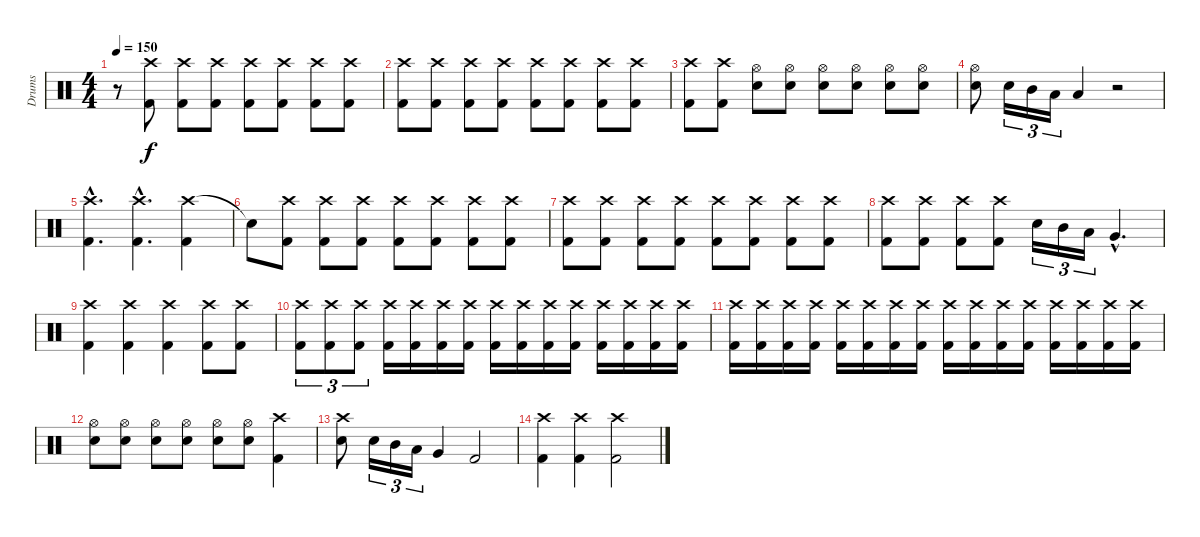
\track ("Drums" "Drums") {instrument percussion}
\staff {score}
\articulation defaults
\ts (4 4)
\tempo 150
\clef neutral
\ks c
r.8{dy f} ("Crash high (hit)" "Kick (hit) 2").8 ("Crash high (hit)" "Kick (hit) 2").8 ("Crash high (hit)" "Kick (hit) 2").8 ("Crash high (hit)" "Kick (hit) 2").8 ("Crash high (hit)" "Kick (hit) 2").8 ("Crash high (hit)" "Kick (hit) 2").8 ("Crash high (hit)" "Kick (hit) 2").8 |
("Crash high (hit)" "Kick (hit) 2").8 ("Crash high (hit)" "Kick (hit) 2").8 ("Crash high (hit)" "Kick (hit) 2").8 ("Crash high (hit)" "Kick (hit) 2").8 ("Crash high (hit)" "Kick (hit) 2").8 ("Crash high (hit)" "Kick (hit) 2").8 ("Crash high (hit)" "Kick (hit) 2").8 ("Crash high (hit)" "Kick (hit) 2").8 |
("Crash high (hit)" "Kick (hit) 2").8 ("Crash high (hit)" "Kick (hit) 2").8 ("Hi-Hat (open)" "Electric Snare (hit)").8 ("Hi-Hat (open)" "Electric Snare (hit)").8 ("Hi-Hat (open)" "Electric Snare (hit)").8 ("Hi-Hat (open)" "Electric Snare (hit)").8 ("Hi-Hat (open)" "Electric Snare (hit)").8 ("Hi-Hat (open)" "Electric Snare (hit)").8 |
("Hi-Hat (open)" "Electric Snare (hit)").8 "Electric Snare (hit)".16{tu (3 2)} "Mid Tom (hit)".16{tu (3 2)} "Low Tom (hit)".16{tu (3 2)} "Low Tom (hit)".4 r.2 |
("Crash high (hit)"{hac} "Kick (hit) 2"{hac}).4{d} ("Crash high (hit)"{hac} "Kick (hit) 2"{hac}).4{d} ("Crash high (hit)" "Kick (hit) 2").4 |
"Snare (hit)"{t}.8 ("Crash high (hit)" "Kick (hit) 2").8 ("Crash high (hit)" "Kick (hit) 2").8 ("Crash high (hit)" "Kick (hit) 2").8 ("Crash high (hit)" "Kick (hit) 2").8 ("Crash high (hit)" "Kick (hit) 2").8 ("Crash high (hit)" "Kick (hit) 2").8 ("Crash high (hit)" "Kick (hit) 2").8 |
("Crash high (hit)" "Kick (hit) 2").8 ("Crash high (hit)" "Kick (hit) 2").8 ("Crash high (hit)" "Kick (hit) 2").8 ("Crash high (hit)" "Kick (hit) 2").8 ("Crash high (hit)" "Kick (hit) 2").8 ("Crash high (hit)" "Kick (hit) 2").8 ("Crash high (hit)" "Kick (hit) 2").8 ("Crash high (hit)" "Kick (hit) 2").8 |
("Crash high (hit)" "Kick (hit) 2").8 ("Crash high (hit)" "Kick (hit) 2").8 ("Crash high (hit)" "Kick (hit) 2").8 ("Crash high (hit)" "Kick (hit) 2").8 "Electric Snare (hit)".16{tu (3 2)} "Mid Tom (hit)".16{tu (3 2)} "Low Tom (hit)".16{tu (3 2)} "Very Low Tom (hit)"{hac}.4{d} |
("Crash high (hit)" "Kick (hit) 2").4 ("Crash high (hit)" "Kick (hit) 2").4 ("Crash high (hit)" "Kick (hit) 2").4 ("Crash high (hit)" "Kick (hit) 2").8 ("Crash high (hit)" "Kick (hit) 2").8 |
("Crash high (hit)" "Kick (hit) 2").8{tu (3 2)} ("Crash high (hit)" "Kick (hit) 2").8{tu (3 2)} ("Crash high (hit)" "Kick (hit) 2").8{tu (3 2)} ("Crash high (hit)" "Kick (hit) 2").16 ("Crash high (hit)" "Kick (hit) 2").16 ("Crash high (hit)" "Kick (hit) 2").16 ("Crash high (hit)" "Kick (hit) 2").16 ("Crash high (hit)" "Kick (hit) 2").16 ("Crash high (hit)" "Kick (hit) 2").16 ("Crash high (hit)" "Kick (hit) 2").16 ("Crash high (hit)" "Kick (hit) 2").16 ("Crash high (hit)" "Kick (hit) 2").16 ("Crash high (hit)" "Kick (hit) 2").16 ("Crash high (hit)" "Kick (hit) 2").16 ("Crash high (hit)" "Kick (hit) 2").16 |
("Crash high (hit)" "Kick (hit) 2").16 ("Crash high (hit)" "Kick (hit) 2").16 ("Crash high (hit)" "Kick (hit) 2").16 ("Crash high (hit)" "Kick (hit) 2").16 ("Crash high (hit)" "Kick (hit) 2").16 ("Crash high (hit)" "Kick (hit) 2").16 ("Crash high (hit)" "Kick (hit) 2").16 ("Crash high (hit)" "Kick (hit) 2").16 ("Crash high (hit)" "Kick (hit) 2").16 ("Crash high (hit)" "Kick (hit) 2").16 ("Crash high (hit)" "Kick (hit) 2").16 ("Crash high (hit)" "Kick (hit) 2").16 ("Crash high (hit)" "Kick (hit) 2").16 ("Crash high (hit)" "Kick (hit) 2").16 ("Crash high (hit)" "Kick (hit) 2").16 ("Crash high (hit)" "Kick (hit) 2").16 |
("Hi-Hat (open)" "Electric Snare (hit)").8 ("Hi-Hat (open)" "Electric Snare (hit)").8 ("Hi-Hat (open)" "Electric Snare (hit)").8 ("Hi-Hat (open)" "Electric Snare (hit)").8 ("Hi-Hat (open)" "Electric Snare (hit)").8 ("Hi-Hat (open)" "Electric Snare (hit)").8 ("Crash high (hit)" "Kick (hit) 2").4 |
("Crash high (hit)" "Electric Snare (hit)").8 "Electric Snare (hit)".16{tu (3 2)} "Mid Tom (hit)".16{tu (3 2)} "Low Tom (hit)".16{tu (3 2)} "Very Low Tom (hit)".4 "Kick (hit) 2".2 |
("Crash high (hit)" "Kick (hit) 2").4 ("Crash high (hit)" "Kick (hit) 2").4 ("Crash high (hit)" "Kick (hit) 2").2
